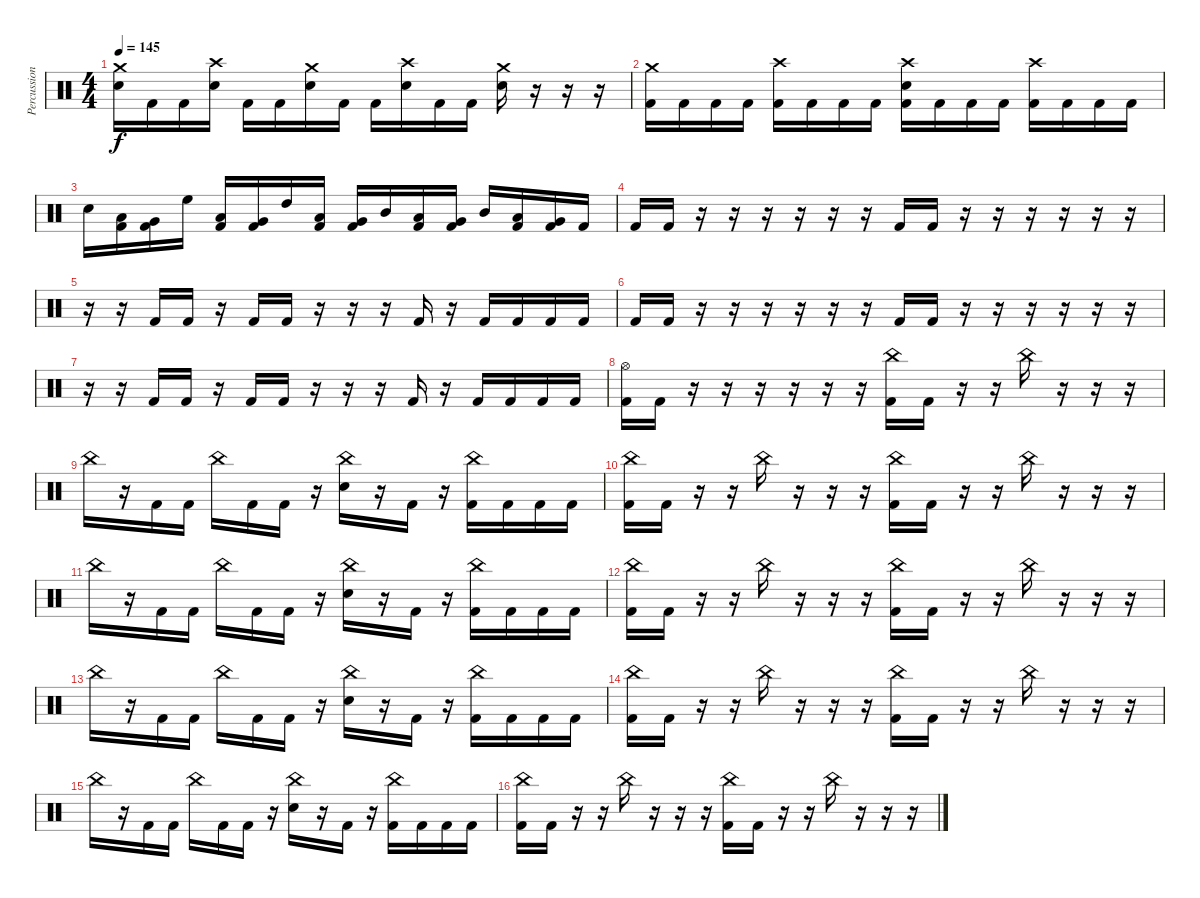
\track ("Percussion" "Percussion") {instrument percussion}
\staff {score}
\articulation defaults
\ts (4 4)
\tempo 145
\clef neutral
\ks c
("Crash medium (hit)" "Electric Snare (hit)").16{dy f} "Kick (hit) 2".16 "Kick (hit) 2".16 ("Crash high (hit)" "Electric Snare (hit)").16 "Kick (hit) 2".16 "Kick (hit) 2".16 ("Crash medium (hit)" "Electric Snare (hit)").16 "Kick (hit) 2".16 "Kick (hit) 2".16 ("Crash high (hit)" "Electric Snare (hit)").16 "Kick (hit) 2".16 "Kick (hit) 2".16 ("Crash medium (hit)" "Electric Snare (hit)").16 r.16 r.16 r.16 |
("Crash medium (hit)" "Kick (hit) 2").16 "Kick (hit) 2".16 "Kick (hit) 2".16 "Kick (hit) 2".16 ("Crash high (hit)" "Kick (hit) 2").16 "Kick (hit) 2".16 "Kick (hit) 2".16 "Kick (hit) 2".16 ("Crash high (hit)" "Electric Snare (hit)" "Kick (hit) 2").16 "Kick (hit) 2".16 "Kick (hit) 2".16 "Kick (hit) 2".16 ("Crash high (hit)" "Kick (hit) 2").16 "Kick (hit) 2".16 "Kick (hit) 2".16 "Kick (hit) 2".16 |
"Electric Snare (hit)".16 ("Low Tom (hit)" "Kick (hit) 2").16 ("Very Low Tom (hit)" "Kick (hit) 2").16 "High Floor Tom (hit)".16 ("Low Tom (hit)" "Kick (hit) 2").16 ("Very Low Tom (hit)" "Kick (hit) 2").16 "High Tom (hit)".16 ("Low Tom (hit)" "Kick (hit) 2").16 ("Very Low Tom (hit)" "Kick (hit) 2").16 "Mid Tom (hit)".16 ("Low Tom (hit)" "Kick (hit) 2").16 ("Very Low Tom (hit)" "Kick (hit) 2").16 "Mid Tom (hit)".16 ("Low Tom (hit)" "Kick (hit) 2").16 ("Very Low Tom (hit)" "Kick (hit) 2").16 "Kick (hit) 2".16 |
"Kick (hit) 2".16 "Kick (hit) 2".16 r.16 r.16 r.16 r.16 r.16 r.16 "Kick (hit) 2".16 "Kick (hit) 2".16 r.16 r.16 r.16 r.16 r.16 r.16 |
r.16 r.16 "Kick (hit) 2".16 "Kick (hit) 2".16 r.16 "Kick (hit) 2".16 "Kick (hit) 2".16 r.16 r.16 r.16 "Kick (hit) 2".16 r.16 "Kick (hit) 2".16 "Kick (hit) 2".16 "Kick (hit) 2".16 "Kick (hit) 2".16 |
"Kick (hit) 2".16 "Kick (hit) 2".16 r.16 r.16 r.16 r.16 r.16 r.16 "Kick (hit) 2".16 "Kick (hit) 2".16 r.16 r.16 r.16 r.16 r.16 r.16 |
r.16 r.16 "Kick (hit) 2".16 "Kick (hit) 2".16 r.16 "Kick (hit) 2".16 "Kick (hit) 2".16 r.16 r.16 r.16 "Kick (hit) 2".16 r.16 "Kick (hit) 2".16 "Kick (hit) 2".16 "Kick (hit) 2".16 "Kick (hit) 2".16 |
("Hi-Hat (open)" "Kick (hit) 2").16 "Kick (hit) 2".16 r.16{volume 0} r.16 r.16 r.16 r.16 r.16 ("China (hit)" "Kick (hit) 2").16{volume 13} "Kick (hit) 2".16 r.16 r.16 "China (hit)".16 r.16 r.16 r.16 |
"China (hit)".16 r.16 "Kick (hit) 2".16 "Kick (hit) 2".16 "China (hit)".16 "Kick (hit) 2".16 "Kick (hit) 2".16 r.16 ("China (hit)" "Electric Snare (hit)").16 r.16 "Kick (hit) 2".16 r.16 ("China (hit)" "Kick (hit) 2").16 "Kick (hit) 2".16 "Kick (hit) 2".16 "Kick (hit) 2".16 |
("China (hit)" "Kick (hit) 2").16 "Kick (hit) 2".16 r.16 r.16 "China (hit)".16 r.16 r.16 r.16 ("China (hit)" "Kick (hit) 2").16 "Kick (hit) 2".16 r.16 r.16 "China (hit)".16 r.16 r.16 r.16 |
"China (hit)".16 r.16 "Kick (hit) 2".16 "Kick (hit) 2".16 "China (hit)".16 "Kick (hit) 2".16 "Kick (hit) 2".16 r.16 ("China (hit)" "Electric Snare (hit)").16 r.16 "Kick (hit) 2".16 r.16 ("China (hit)" "Kick (hit) 2").16 "Kick (hit) 2".16 "Kick (hit) 2".16 "Kick (hit) 2".16 |
("China (hit)" "Kick (hit) 2").16 "Kick (hit) 2".16 r.16 r.16 "China (hit)".16 r.16 r.16 r.16 ("China (hit)" "Kick (hit) 2").16 "Kick (hit) 2".16 r.16 r.16 "China (hit)".16 r.16 r.16 r.16 |
"China (hit)".16 r.16 "Kick (hit) 2".16 "Kick (hit) 2".16 "China (hit)".16 "Kick (hit) 2".16 "Kick (hit) 2".16 r.16 ("China (hit)" "Electric Snare (hit)").16 r.16 "Kick (hit) 2".16 r.16 ("China (hit)" "Kick (hit) 2").16 "Kick (hit) 2".16 "Kick (hit) 2".16 "Kick (hit) 2".16 |
("China (hit)" "Kick (hit) 2").16 "Kick (hit) 2".16 r.16 r.16 "China (hit)".16 r.16 r.16 r.16 ("China (hit)" "Kick (hit) 2").16 "Kick (hit) 2".16 r.16 r.16 "China (hit)".16 r.16 r.16 r.16 |
"China (hit)".16 r.16 "Kick (hit) 2".16 "Kick (hit) 2".16 "China (hit)".16 "Kick (hit) 2".16 "Kick (hit) 2".16 r.16 ("China (hit)" "Electric Snare (hit)").16 r.16 "Kick (hit) 2".16 r.16 ("China (hit)" "Kick (hit) 2").16 "Kick (hit) 2".16 "Kick (hit) 2".16 "Kick (hit) 2".16 |
("China (hit)" "Kick (hit) 2").16 "Kick (hit) 2".16 r.16 r.16 "China (hit)".16 r.16 r.16 r.16 ("China (hit)" "Kick (hit) 2").16 "Kick (hit) 2".16 r.16 r.16 "China (hit)".16 r.16 r.16 r.16
